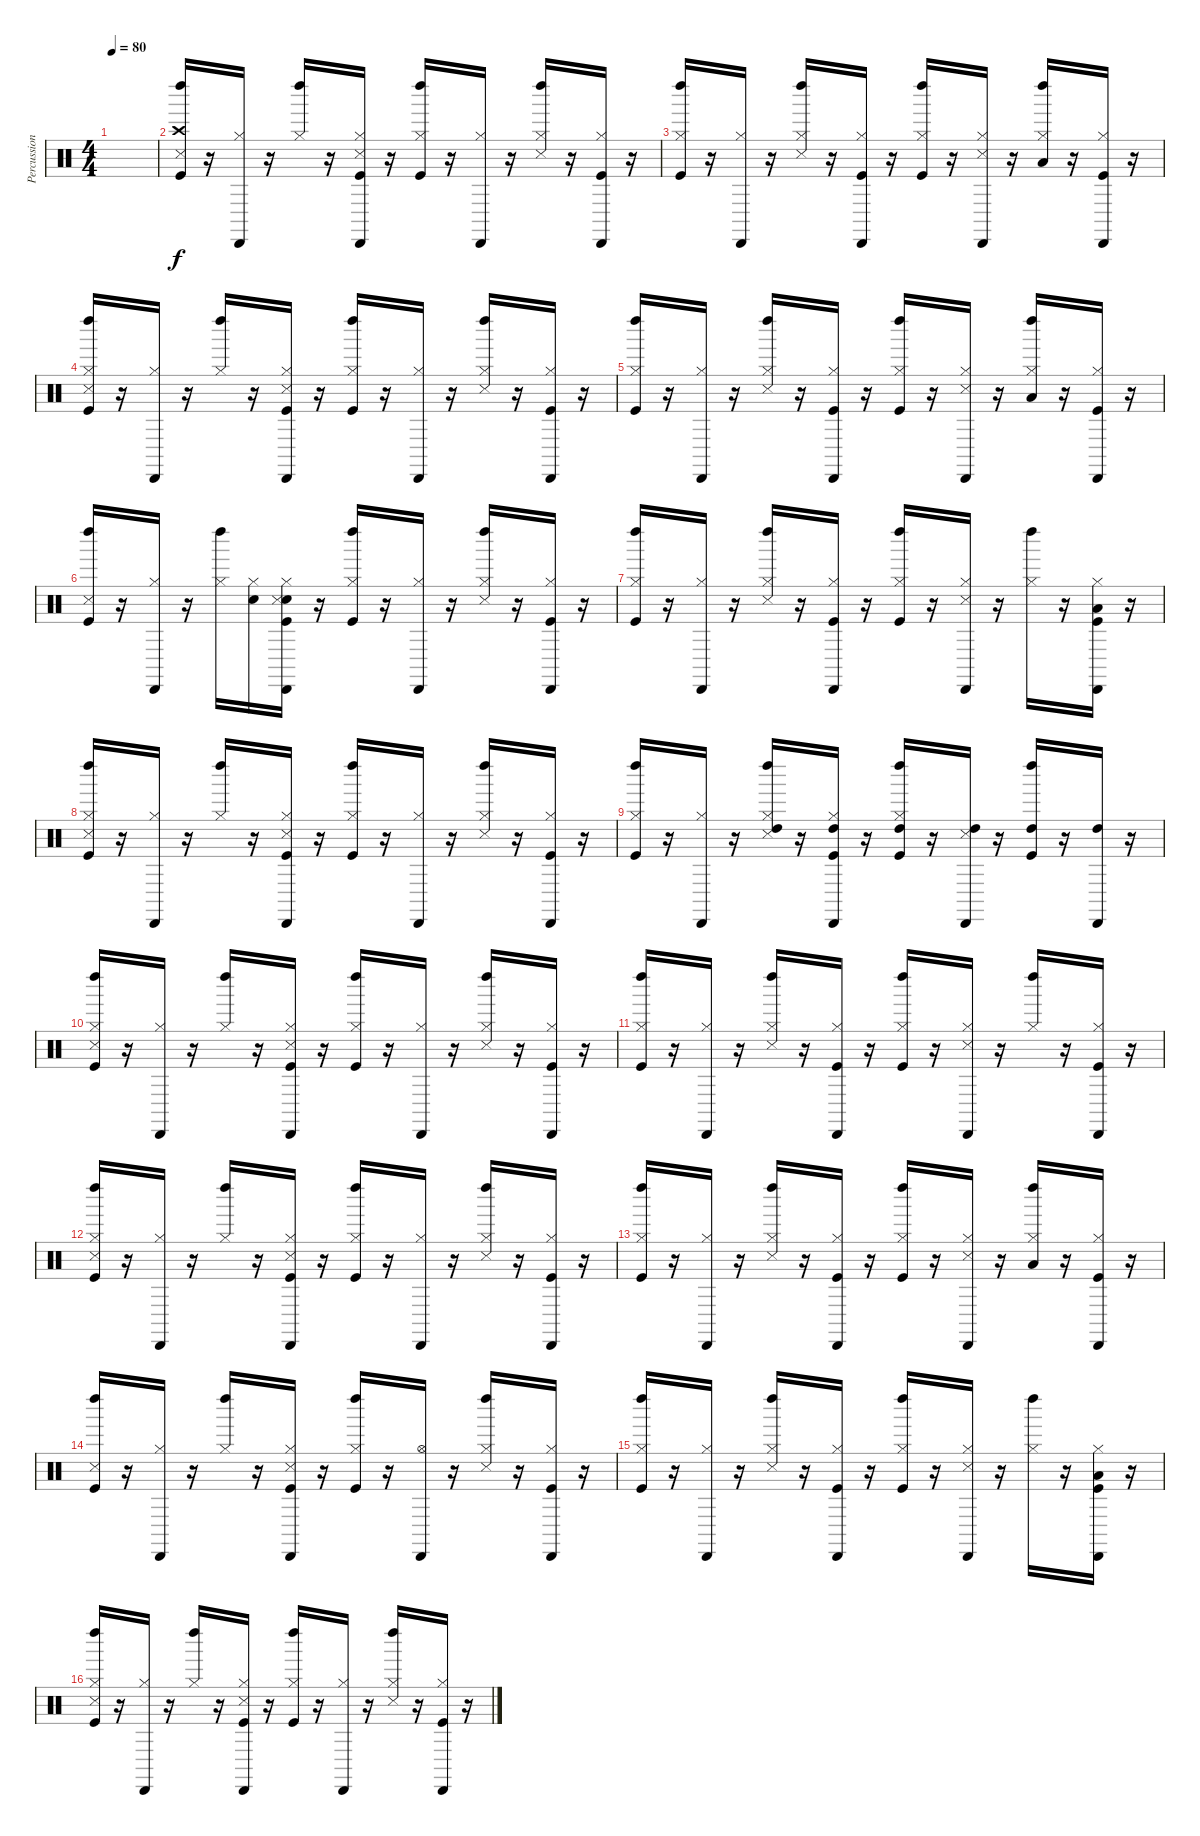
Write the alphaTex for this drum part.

\track ("Percussions" "Percussion") {instrument percussion}
\staff {score}
\articulation defaults
\ts (4 4)
\tempo 80
\clef neutral
\ks c
|
("Kick (hit)" "Snare (side stick) 3" "Crash high (hit)" "Left Maraca (hit)").16 r.16 ("Hi-Hat (closed)" "Cabasa (hit)").16 r.16 ("Hi-Hat (closed)" "Left Maraca (hit)").16 r.16 ("Kick (hit)" "Hi-Hat (closed)" "Snare (side stick) 3" "Cabasa (hit)").16 r.16 ("Kick (hit)" "Hi-Hat (closed)" "Left Maraca (hit)").16 r.16 ("Hi-Hat (closed)" "Cabasa (hit)").16 r.16 ("Hi-Hat (closed)" "Snare (side stick) 3" "Left Maraca (hit)").16 r.16 ("Kick (hit)" "Hi-Hat (closed)" "Cabasa (hit)").16 r.16 |
("Kick (hit)" "Hi-Hat (closed)" "Left Maraca (hit)").16 r.16 ("Hi-Hat (closed)" "Cabasa (hit)").16 r.16 ("Hi-Hat (closed)" "Snare (side stick) 3" "Left Maraca (hit)").16 r.16 ("Kick (hit)" "Hi-Hat (closed)" "Cabasa (hit)").16 r.16 ("Kick (hit)" "Hi-Hat (closed)" "Left Maraca (hit)").16 r.16 ("Hi-Hat (closed)" "Snare (side stick) 3" "Cabasa (hit)").16 r.16 ("Hi-Hat (closed)" "Low Tom (hit)" "Left Maraca (hit)").16 r.16 ("Kick (hit)" "Hi-Hat (closed)" "Cabasa (hit)").16 r.16 |
("Kick (hit)" "Hi-Hat (closed)" "Snare (side stick) 3" "Left Maraca (hit)").16 r.16 ("Hi-Hat (closed)" "Cabasa (hit)").16 r.16 ("Hi-Hat (closed)" "Left Maraca (hit)").16 r.16 ("Kick (hit)" "Hi-Hat (closed)" "Snare (side stick) 3" "Cabasa (hit)").16 r.16 ("Kick (hit)" "Hi-Hat (closed)" "Left Maraca (hit)").16 r.16 ("Hi-Hat (closed)" "Cabasa (hit)").16 r.16 ("Hi-Hat (closed)" "Snare (side stick) 3" "Left Maraca (hit)").16 r.16 ("Kick (hit)" "Hi-Hat (closed)" "Cabasa (hit)").16 r.16 |
("Kick (hit)" "Hi-Hat (closed)" "Left Maraca (hit)").16 r.16 ("Hi-Hat (closed)" "Cabasa (hit)").16 r.16 ("Hi-Hat (closed)" "Snare (side stick) 3" "Left Maraca (hit)").16 r.16 ("Kick (hit)" "Hi-Hat (closed)" "Cabasa (hit)").16 r.16 ("Kick (hit)" "Hi-Hat (closed)" "Left Maraca (hit)").16 r.16 ("Hi-Hat (closed)" "Snare (side stick) 3" "Cabasa (hit)").16 r.16 ("Hi-Hat (closed)" "Low Tom (hit)" "Left Maraca (hit)").16 r.16 ("Kick (hit)" "Hi-Hat (closed)" "Cabasa (hit)").16 r.16 |
("Kick (hit)" "Snare (side stick) 3" "Left Maraca (hit)").16 r.16 ("Hi-Hat (closed)" "Cabasa (hit)").16 r.16 ("Hi-Hat (closed)" "Left Maraca (hit)").16 ("Snare (hit)" "Hi-Hat (closed)").16 ("Snare (hit)" "Kick (hit)" "Hi-Hat (closed)" "Snare (side stick) 3" "Cabasa (hit)").16 r.16 ("Kick (hit)" "Hi-Hat (closed)" "Left Maraca (hit)").16 r.16 ("Hi-Hat (closed)" "Cabasa (hit)").16 r.16 ("Hi-Hat (closed)" "Snare (side stick) 3" "Left Maraca (hit)").16 r.16 ("Kick (hit)" "Hi-Hat (closed)" "Cabasa (hit)").16 r.16 |
("Kick (hit)" "Hi-Hat (closed)" "Left Maraca (hit)").16 r.16 ("Hi-Hat (closed)" "Cabasa (hit)").16 r.16 ("Hi-Hat (closed)" "Snare (side stick) 3" "Left Maraca (hit)").16 r.16 ("Kick (hit)" "Hi-Hat (closed)" "Cabasa (hit)").16 r.16 ("Kick (hit)" "Hi-Hat (closed)" "Left Maraca (hit)").16 r.16 ("Hi-Hat (closed)" "Snare (side stick) 3" "Cabasa (hit)").16 r.16 ("Hi-Hat (closed)" "Left Maraca (hit)").16 r.16 ("Kick (hit)" "Hi-Hat (closed)" "Low Tom (hit)" "Cabasa (hit)").16 r.16 |
("Kick (hit)" "Hi-Hat (closed)" "Snare (side stick) 3" "Left Maraca (hit)").16 r.16 ("Hi-Hat (closed)" "Cabasa (hit)").16 r.16 ("Hi-Hat (closed)" "Left Maraca (hit)").16 r.16 ("Kick (hit)" "Hi-Hat (closed)" "Snare (side stick) 3" "Cabasa (hit)").16 r.16 ("Kick (hit)" "Hi-Hat (closed)" "Left Maraca (hit)").16 r.16 ("Hi-Hat (closed)" "Cabasa (hit)").16 r.16 ("Hi-Hat (closed)" "Snare (side stick) 3" "Left Maraca (hit)").16 r.16 ("Kick (hit)" "Hi-Hat (closed)" "Cabasa (hit)").16 r.16 |
("Kick (hit)" "Hi-Hat (closed)" "Left Maraca (hit)").16 r.16 ("Hi-Hat (closed)" "Cabasa (hit)").16 r.16 ("Hi-Hat (closed)" "Snare (side stick) 3" "High Tom (hit)" "Left Maraca (hit)").16 r.16 ("Kick (hit)" "Hi-Hat (closed)" "High Tom (hit)" "Cabasa (hit)").16 r.16 ("Kick (hit)" "Hi-Hat (closed)" "High Tom (hit)" "Left Maraca (hit)").16 r.16 ("Snare (side stick) 3" "High Tom (hit)" "Cabasa (hit)").16 r.16 ("Kick (hit)" "High Tom (hit)" "Left Maraca (hit)").16 r.16 ("High Tom (hit)" "Cabasa (hit)").16 r.16 |
("Kick (hit)" "Hi-Hat (closed)" "Snare (side stick) 3" "Left Maraca (hit)").16 r.16 ("Hi-Hat (closed)" "Cabasa (hit)").16 r.16 ("Hi-Hat (closed)" "Left Maraca (hit)").16 r.16 ("Kick (hit)" "Hi-Hat (closed)" "Snare (side stick) 3" "Cabasa (hit)").16 r.16 ("Kick (hit)" "Hi-Hat (closed)" "Left Maraca (hit)").16 r.16 ("Hi-Hat (closed)" "Cabasa (hit)").16 r.16 ("Hi-Hat (closed)" "Snare (side stick) 3" "Left Maraca (hit)").16 r.16 ("Kick (hit)" "Hi-Hat (closed)" "Cabasa (hit)").16 r.16 |
("Kick (hit)" "Hi-Hat (closed)" "Left Maraca (hit)").16 r.16 ("Hi-Hat (closed)" "Cabasa (hit)").16 r.16 ("Hi-Hat (closed)" "Snare (side stick) 3" "Left Maraca (hit)").16 r.16 ("Kick (hit)" "Hi-Hat (closed)" "Cabasa (hit)").16 r.16 ("Kick (hit)" "Hi-Hat (closed)" "Left Maraca (hit)").16 r.16 ("Hi-Hat (closed)" "Snare (side stick) 3" "Cabasa (hit)").16 r.16 ("Hi-Hat (closed)" "Left Maraca (hit)").16 r.16 ("Kick (hit)" "Hi-Hat (closed)" "Cabasa (hit)").16 r.16 |
("Kick (hit)" "Hi-Hat (closed)" "Snare (side stick) 3" "Left Maraca (hit)").16 r.16 ("Hi-Hat (closed)" "Cabasa (hit)").16 r.16 ("Hi-Hat (closed)" "Left Maraca (hit)").16 r.16 ("Kick (hit)" "Hi-Hat (closed)" "Snare (side stick) 3" "Cabasa (hit)").16 r.16 ("Kick (hit)" "Hi-Hat (closed)" "Left Maraca (hit)").16 r.16 ("Hi-Hat (closed)" "Cabasa (hit)").16 r.16 ("Hi-Hat (closed)" "Snare (side stick) 3" "Left Maraca (hit)").16 r.16 ("Kick (hit)" "Hi-Hat (closed)" "Cabasa (hit)").16 r.16 |
("Kick (hit)" "Hi-Hat (closed)" "Left Maraca (hit)").16 r.16 ("Hi-Hat (closed)" "Cabasa (hit)").16 r.16 ("Hi-Hat (closed)" "Snare (side stick) 3" "Left Maraca (hit)").16 r.16 ("Kick (hit)" "Hi-Hat (closed)" "Cabasa (hit)").16 r.16 ("Kick (hit)" "Hi-Hat (closed)" "Left Maraca (hit)").16 r.16 ("Hi-Hat (closed)" "Snare (side stick) 3" "Cabasa (hit)").16 r.16 ("Hi-Hat (closed)" "Low Tom (hit)" "Left Maraca (hit)").16 r.16 ("Kick (hit)" "Hi-Hat (closed)" "Cabasa (hit)").16 r.16 |
("Kick (hit)" "Snare (side stick) 3" "Left Maraca (hit)").16 r.16 ("Hi-Hat (closed)" "Cabasa (hit)").16 r.16 ("Hi-Hat (closed)" "Left Maraca (hit)").16 r.16 ("Kick (hit)" "Hi-Hat (closed)" "Snare (side stick) 3" "Cabasa (hit)").16 r.16 ("Kick (hit)" "Hi-Hat (closed)" "Left Maraca (hit)").16 r.16 ("Hi-Hat (open)" "Cabasa (hit)").16 r.16 ("Hi-Hat (closed)" "Snare (side stick) 3" "Left Maraca (hit)").16 r.16 ("Kick (hit)" "Hi-Hat (closed)" "Cabasa (hit)").16 r.16 |
("Kick (hit)" "Hi-Hat (closed)" "Left Maraca (hit)").16 r.16 ("Hi-Hat (closed)" "Cabasa (hit)").16 r.16 ("Hi-Hat (closed)" "Snare (side stick) 3" "Left Maraca (hit)").16 r.16 ("Kick (hit)" "Hi-Hat (closed)" "Cabasa (hit)").16 r.16 ("Kick (hit)" "Hi-Hat (closed)" "Left Maraca (hit)").16 r.16 ("Hi-Hat (closed)" "Snare (side stick) 3" "Cabasa (hit)").16 r.16 ("Hi-Hat (closed)" "Left Maraca (hit)").16 r.16 ("Kick (hit)" "Hi-Hat (closed)" "Low Tom (hit)" "Cabasa (hit)").16 r.16 |
("Kick (hit)" "Hi-Hat (closed)" "Snare (side stick) 3" "Left Maraca (hit)").16 r.16 ("Hi-Hat (closed)" "Cabasa (hit)").16 r.16 ("Hi-Hat (closed)" "Left Maraca (hit)").16 r.16 ("Kick (hit)" "Hi-Hat (closed)" "Snare (side stick) 3" "Cabasa (hit)").16 r.16 ("Kick (hit)" "Hi-Hat (closed)" "Left Maraca (hit)").16 r.16 ("Hi-Hat (closed)" "Cabasa (hit)").16 r.16 ("Hi-Hat (closed)" "Snare (side stick) 3" "Left Maraca (hit)").16 r.16 ("Kick (hit)" "Hi-Hat (closed)" "Cabasa (hit)").16 r.16
